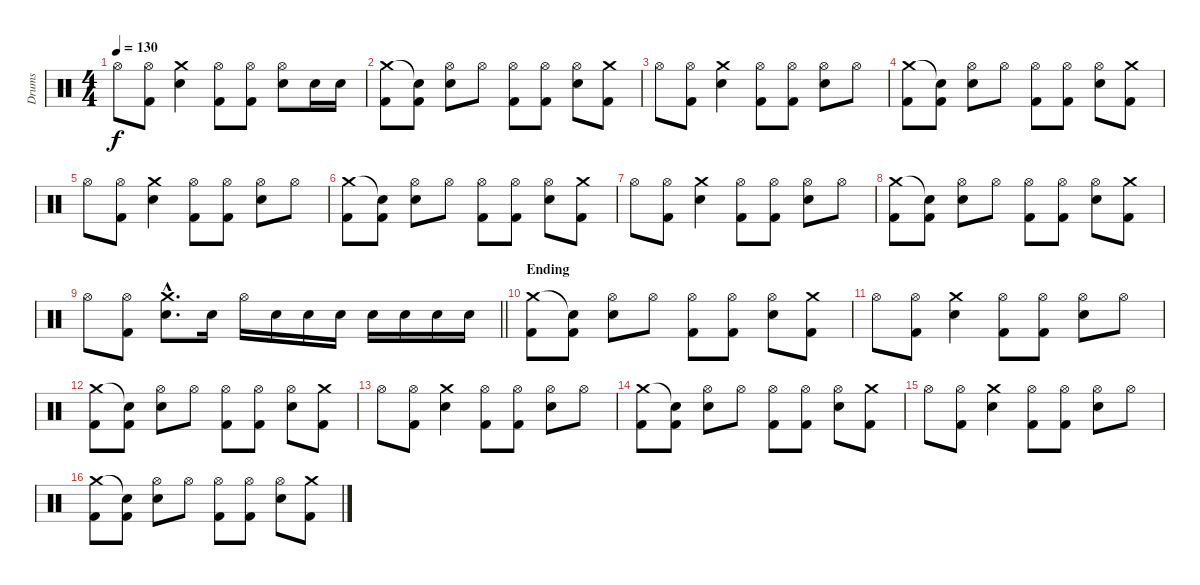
\track ("Drums" "Drums") {instrument percussion}
\staff {score}
\articulation defaults
\ts (4 4)
\tempo 130
\clef neutral
\ks c "Hi-Hat (open)".8{dy f}
("Hi-Hat (open)" "Kick (hit) 2").8 ("Crash medium (hit)" "Electric Snare (hit)").4 ("Hi-Hat (open)" "Kick (hit) 2").8 ("Hi-Hat (open)" "Kick (hit) 2").8 ("Hi-Hat (open)" "Electric Snare (hit)").8 "Electric Snare (hit)".16 "Electric Snare (hit)".16 |
("Crash medium (hit)" "Kick (hit) 2").8 ("Snare (hit)"{t} "Kick (hit) 2").8 ("Hi-Hat (open)" "Electric Snare (hit)").8 "Hi-Hat (open)".8 ("Hi-Hat (open)" "Kick (hit) 2").8 ("Hi-Hat (open)" "Kick (hit) 2").8 ("Hi-Hat (open)" "Electric Snare (hit)").8 ("Crash medium (hit)" "Kick (hit) 2").8 |
"Hi-Hat (open)".8 ("Hi-Hat (open)" "Kick (hit) 2").8 ("Crash medium (hit)" "Electric Snare (hit)").4 ("Hi-Hat (open)" "Kick (hit) 2").8 ("Hi-Hat (open)" "Kick (hit) 2").8 ("Hi-Hat (open)" "Electric Snare (hit)").8 "Hi-Hat (open)".8 |
("Crash medium (hit)" "Kick (hit) 2").8 ("Snare (hit)"{t} "Kick (hit) 2").8 ("Hi-Hat (open)" "Electric Snare (hit)").8 "Hi-Hat (open)".8 ("Hi-Hat (open)" "Kick (hit) 2").8 ("Hi-Hat (open)" "Kick (hit) 2").8 ("Hi-Hat (open)" "Electric Snare (hit)").8 ("Crash medium (hit)" "Kick (hit) 2").8 |
"Hi-Hat (open)".8 ("Hi-Hat (open)" "Kick (hit) 2").8 ("Crash medium (hit)" "Electric Snare (hit)").4 ("Hi-Hat (open)" "Kick (hit) 2").8 ("Hi-Hat (open)" "Kick (hit) 2").8 ("Hi-Hat (open)" "Electric Snare (hit)").8 "Hi-Hat (open)".8 |
("Crash medium (hit)" "Kick (hit) 2").8 ("Snare (hit)"{t} "Kick (hit) 2").8 ("Hi-Hat (open)" "Electric Snare (hit)").8 "Hi-Hat (open)".8 ("Hi-Hat (open)" "Kick (hit) 2").8 ("Hi-Hat (open)" "Kick (hit) 2").8 ("Hi-Hat (open)" "Electric Snare (hit)").8 ("Crash medium (hit)" "Kick (hit) 2").8 |
"Hi-Hat (open)".8 ("Hi-Hat (open)" "Kick (hit) 2").8 ("Crash medium (hit)" "Electric Snare (hit)").4 ("Hi-Hat (open)" "Kick (hit) 2").8 ("Hi-Hat (open)" "Kick (hit) 2").8 ("Hi-Hat (open)" "Electric Snare (hit)").8 "Hi-Hat (open)".8 |
("Crash medium (hit)" "Kick (hit) 2").8 ("Snare (hit)"{t} "Kick (hit) 2").8 ("Hi-Hat (open)" "Electric Snare (hit)").8 "Hi-Hat (open)".8 ("Hi-Hat (open)" "Kick (hit) 2").8 ("Hi-Hat (open)" "Kick (hit) 2").8 ("Hi-Hat (open)" "Electric Snare (hit)").8 ("Crash medium (hit)" "Kick (hit) 2").8 |
\barLineRight lightlight "Hi-Hat (open)".8
("Hi-Hat (open)" "Kick (hit) 2").8 ("Crash medium (hit)"{hac} "Electric Snare (hit)"{hac}).8{d} "Electric Snare (hit)".16 "Hi-Hat (open)".16 "Electric Snare (hit)".16 "Electric Snare (hit)".16 "Electric Snare (hit)".16 "Electric Snare (hit)".16 "Electric Snare (hit)".16 "Electric Snare (hit)".16 "Electric Snare (hit)".16 |
\section ("" "Ending")
("Crash medium (hit)" "Kick (hit) 2").8 ("Snare (hit)"{t} "Kick (hit) 2").8 ("Hi-Hat (open)" "Electric Snare (hit)").8 "Hi-Hat (open)".8 ("Hi-Hat (open)" "Kick (hit) 2").8 ("Hi-Hat (open)" "Kick (hit) 2").8 ("Hi-Hat (open)" "Electric Snare (hit)").8 ("Crash medium (hit)" "Kick (hit) 2").8 |
"Hi-Hat (open)".8 ("Hi-Hat (open)" "Kick (hit) 2").8 ("Crash medium (hit)" "Electric Snare (hit)").4 ("Hi-Hat (open)" "Kick (hit) 2").8 ("Hi-Hat (open)" "Kick (hit) 2").8 ("Hi-Hat (open)" "Electric Snare (hit)").8 "Hi-Hat (open)".8 |
("Crash medium (hit)" "Kick (hit) 2").8 ("Snare (hit)"{t} "Kick (hit) 2").8 ("Hi-Hat (open)" "Electric Snare (hit)").8 "Hi-Hat (open)".8 ("Hi-Hat (open)" "Kick (hit) 2").8 ("Hi-Hat (open)" "Kick (hit) 2").8 ("Hi-Hat (open)" "Electric Snare (hit)").8 ("Crash medium (hit)" "Kick (hit) 2").8 |
"Hi-Hat (open)".8 ("Hi-Hat (open)" "Kick (hit) 2").8 ("Crash medium (hit)" "Electric Snare (hit)").4 ("Hi-Hat (open)" "Kick (hit) 2").8 ("Hi-Hat (open)" "Kick (hit) 2").8 ("Hi-Hat (open)" "Electric Snare (hit)").8 "Hi-Hat (open)".8 |
("Crash medium (hit)" "Kick (hit) 2").8 ("Snare (hit)"{t} "Kick (hit) 2").8 ("Hi-Hat (open)" "Electric Snare (hit)").8 "Hi-Hat (open)".8 ("Hi-Hat (open)" "Kick (hit) 2").8 ("Hi-Hat (open)" "Kick (hit) 2").8 ("Hi-Hat (open)" "Electric Snare (hit)").8 ("Crash medium (hit)" "Kick (hit) 2").8 |
"Hi-Hat (open)".8 ("Hi-Hat (open)" "Kick (hit) 2").8 ("Crash medium (hit)" "Electric Snare (hit)").4 ("Hi-Hat (open)" "Kick (hit) 2").8 ("Hi-Hat (open)" "Kick (hit) 2").8 ("Hi-Hat (open)" "Electric Snare (hit)").8 "Hi-Hat (open)".8 |
("Crash medium (hit)" "Kick (hit) 2").8 ("Snare (hit)"{t} "Kick (hit) 2").8 ("Hi-Hat (open)" "Electric Snare (hit)").8 "Hi-Hat (open)".8 ("Hi-Hat (open)" "Kick (hit) 2").8 ("Hi-Hat (open)" "Kick (hit) 2").8 ("Hi-Hat (open)" "Electric Snare (hit)").8 ("Crash medium (hit)" "Kick (hit) 2").8
